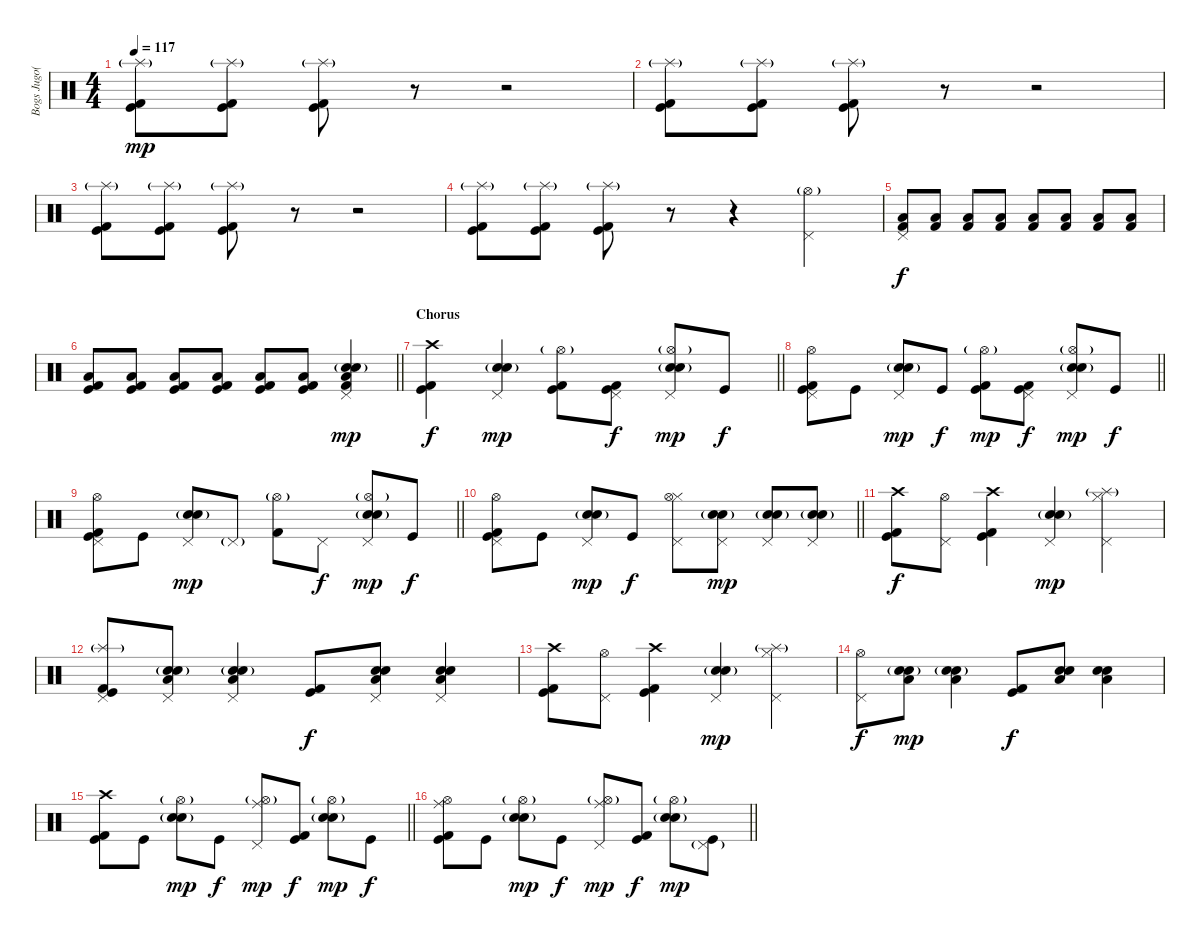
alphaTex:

\track ("Bogs Jugo(Drums)" "Bogs Jugo(") {instrument percussion}
\staff {score}
\articulation defaults
\ts (4 4)
\tempo 117
\clef neutral
\ks c
("Kick (hit) 2" "Kick (hit)" "Splash (hit)"{g}).8{dy mp} ("Kick (hit) 2" "Kick (hit)" "Splash (hit)"{g}).8 ("Kick (hit) 2" "Kick (hit)" "Splash (hit)"{g}).8 r.8 r.2 |
("Kick (hit) 2" "Kick (hit)" "Splash (hit)"{g}).8 ("Kick (hit) 2" "Kick (hit)" "Splash (hit)"{g}).8 ("Kick (hit) 2" "Kick (hit)" "Splash (hit)"{g}).8 r.8 r.2 |
("Kick (hit) 2" "Kick (hit)" "Splash (hit)"{g}).8 ("Kick (hit) 2" "Kick (hit)" "Splash (hit)"{g}).8 ("Kick (hit) 2" "Kick (hit)" "Splash (hit)"{g}).8 r.8 r.2 |
("Kick (hit) 2" "Kick (hit)" "Splash (hit)"{g}).8 ("Kick (hit) 2" "Kick (hit)" "Splash (hit)"{g}).8 ("Kick (hit) 2" "Kick (hit)" "Splash (hit)"{g}).8 r.8 r.4 ("Pedal Hi-Hat (hit)" "Hi-Hat (open)"{g}).4 |
("Low Tom (hit)" "Kick (hit) 2" "Pedal Hi-Hat (hit)").8{dy f} ("Low Tom (hit)" "Kick (hit) 2").8 ("Low Tom (hit)" "Kick (hit) 2").8 ("Low Tom (hit)" "Kick (hit) 2").8 ("Low Tom (hit)" "Kick (hit) 2").8 ("Low Tom (hit)" "Kick (hit) 2").8 ("Low Tom (hit)" "Kick (hit) 2").8 ("Low Tom (hit)" "Kick (hit) 2").8 |
\barLineRight lightlight
("Low Tom (hit)" "Kick (hit) 2" "Kick (hit)").8 ("Low Tom (hit)" "Kick (hit) 2" "Kick (hit)").8 ("Low Tom (hit)" "Kick (hit) 2" "Kick (hit)").8 ("Low Tom (hit)" "Kick (hit) 2" "Kick (hit)").8 ("Low Tom (hit)" "Kick (hit) 2" "Kick (hit)").8 ("Low Tom (hit)" "Kick (hit) 2" "Kick (hit)").8 ("Low Tom (hit)" "Kick (hit) 2" "Snare (hit) 2" "Electric Snare (hit)"{g} "Pedal Hi-Hat (hit)").4{dy mp} |
\section ("" "Chorus")
\barLineRight lightlight
("Crash high (hit)" "Kick (hit) 2" "Kick (hit)").4{dy f} ("Electric Snare (hit)" "Snare (hit) 2"{g} "Pedal Hi-Hat (hit)").4{dy mp} ("Kick (hit) 2" "Kick (hit)" "Hi-Hat (open)"{g}).8 ("Kick (hit) 2" "Kick (hit)" "Pedal Hi-Hat (hit)").8{dy f} ("Electric Snare (hit)" "Snare (hit) 2"{g} "Pedal Hi-Hat (hit)" "Hi-Hat (open)"{g}).8{dy mp} "Kick (hit)".8{dy f} |
\barLineRight lightlight
("Kick (hit) 2" "Kick (hit)" "Pedal Hi-Hat (hit)" "Hi-Hat (open)").8 "Kick (hit)".8 ("Electric Snare (hit)" "Snare (hit) 2"{g} "Pedal Hi-Hat (hit)").8{dy mp} "Kick (hit)".8{dy f} ("Kick (hit) 2" "Kick (hit)" "Hi-Hat (open)"{g}).8{dy mp} ("Kick (hit) 2" "Kick (hit)" "Pedal Hi-Hat (hit)").8{dy f} ("Electric Snare (hit)" "Snare (hit) 2"{g} "Pedal Hi-Hat (hit)" "Hi-Hat (open)"{g}).8{dy mp} "Kick (hit)".8{dy f} |
\barLineRight lightlight
("Kick (hit) 2" "Kick (hit)" "Pedal Hi-Hat (hit)" "Hi-Hat (open)").8 "Kick (hit)".8 ("Electric Snare (hit)" "Snare (hit) 2"{g} "Pedal Hi-Hat (hit)").8{dy mp} "Pedal Hi-Hat (hit)"{g}.8 ("Kick (hit) 2" "Hi-Hat (open)"{g}).8 "Pedal Hi-Hat (hit)".8{dy f} ("Electric Snare (hit)" "Snare (hit) 2"{g} "Pedal Hi-Hat (hit)" "Hi-Hat (open)"{g}).8{dy mp} "Kick (hit)".8{dy f} |
\barLineRight lightlight
("Kick (hit) 2" "Kick (hit)" "Pedal Hi-Hat (hit)" "Hi-Hat (open)").8 "Kick (hit)".8 ("Electric Snare (hit)" "Snare (hit) 2"{g} "Pedal Hi-Hat (hit)").8{dy mp} "Kick (hit)".8{dy f} ("Pedal Hi-Hat (hit)" "Hi-Hat (closed)" "Hi-Hat (open)").8 ("Electric Snare (hit)" "Snare (hit) 2"{g} "Pedal Hi-Hat (hit)").8{dy mp} ("Electric Snare (hit)" "Snare (hit) 2"{g} "Pedal Hi-Hat (hit)").8 ("Electric Snare (hit)" "Snare (hit) 2"{g} "Pedal Hi-Hat (hit)").8 |
("Crash high (hit)" "Kick (hit) 2" "Kick (hit)").8{dy f} ("Pedal Hi-Hat (hit)" "Hi-Hat (open)").8 ("Crash high (hit)" "Kick (hit) 2" "Kick (hit)").4 ("Electric Snare (hit)" "Snare (hit) 2"{g} "Pedal Hi-Hat (hit)").4{dy mp} ("Pedal Hi-Hat (hit)" "Hi-Hat (closed)" "Splash (hit)"{g}).4 |
("Kick (hit) 2" "Kick (hit)" "Splash (hit)"{g} "Pedal Hi-Hat (hit)").8 ("Electric Snare (hit)" "Snare (hit) 2"{g} "Pedal Hi-Hat (hit)" "Low Tom (hit)").8 ("Electric Snare (hit)" "Snare (hit) 2"{g} "Pedal Hi-Hat (hit)" "Low Tom (hit)").4 ("Kick (hit) 2" "Kick (hit)").8{dy f} ("Electric Snare (hit)" "Snare (hit) 2" "Pedal Hi-Hat (hit)" "Low Tom (hit)").8 ("Electric Snare (hit)" "Snare (hit) 2" "Pedal Hi-Hat (hit)" "Low Tom (hit)").4 |
("Crash high (hit)" "Kick (hit) 2" "Kick (hit)").8 ("Pedal Hi-Hat (hit)" "Hi-Hat (open)").8 ("Crash high (hit)" "Kick (hit) 2" "Kick (hit)").4 ("Electric Snare (hit)" "Snare (hit) 2"{g} "Pedal Hi-Hat (hit)").4{dy mp} ("Pedal Hi-Hat (hit)" "Hi-Hat (closed)" "Splash (hit)"{g}).4 |
("Pedal Hi-Hat (hit)" "Hi-Hat (open)").8{dy f} ("Electric Snare (hit)" "Snare (hit) 2"{g} "Low Tom (hit)").8{dy mp} ("Electric Snare (hit)" "Snare (hit) 2"{g} "Low Tom (hit)").4 ("Kick (hit) 2" "Kick (hit)").8{dy f} ("Electric Snare (hit)" "Snare (hit) 2" "Low Tom (hit)").8 ("Electric Snare (hit)" "Snare (hit) 2" "Low Tom (hit)").4 |
\barLineRight lightlight
("Crash high (hit)" "Kick (hit) 2" "Kick (hit)").8 "Kick (hit)".8 ("Electric Snare (hit)" "Snare (hit) 2"{g} "Hi-Hat (open)"{g}).8{dy mp} "Kick (hit)".8{dy f} ("Pedal Hi-Hat (hit)" "Ride (middle)" "Hi-Hat (open)"{g}).8{dy mp} ("Kick (hit) 2" "Kick (hit)").8{dy f} ("Electric Snare (hit)" "Snare (hit) 2"{g} "Hi-Hat (open)"{g}).8{dy mp} "Kick (hit)".8{dy f} |
\barLineRight lightlight
("Hi-Hat (open)" "Kick (hit) 2" "Kick (hit)" "Ride (middle)").8 "Kick (hit)".8 ("Electric Snare (hit)" "Snare (hit) 2"{g} "Hi-Hat (open)"{g}).8{dy mp} "Kick (hit)".8{dy f} ("Pedal Hi-Hat (hit)" "Ride (middle)" "Hi-Hat (open)"{g}).8{dy mp} ("Kick (hit) 2" "Kick (hit)").8{dy f} ("Electric Snare (hit)" "Snare (hit) 2"{g} "Hi-Hat (open)"{g}).8{dy mp} ("Pedal Hi-Hat (hit)"{g} "Kick (hit)").8
